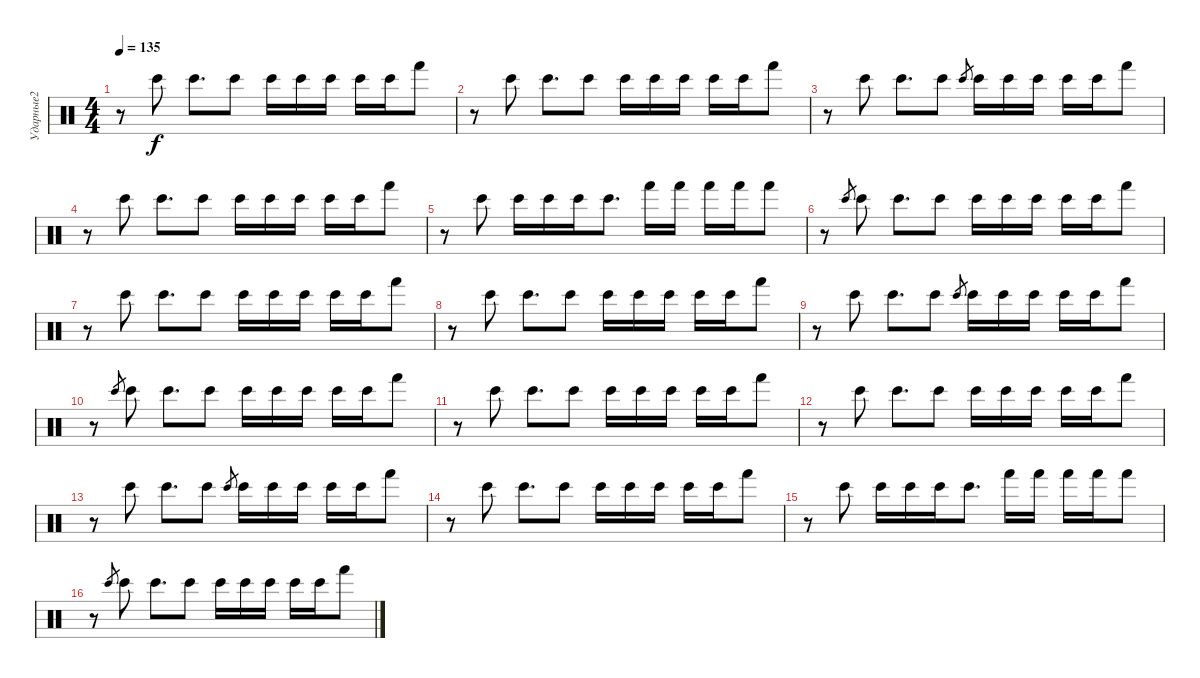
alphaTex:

\track ("Ударные2" "Ударные2") {instrument percussion}
\staff {score}
\articulation defaults
\ts (4 4)
\tempo 135
\clef neutral
\ks c
r.8{dy f} "Bongo High (hit)".8 "Bongo High (hit)".8{d} "Bongo High (hit)".8 "Bongo High (hit)".16 "Bongo High (hit)".16 "Bongo High (hit)".16 "Bongo High (hit)".16 "Bongo High (hit)".16 "Hand (hit)".8 |
r.8 "Bongo High (hit)".8 "Bongo High (hit)".8{d} "Bongo High (hit)".8 "Bongo High (hit)".16 "Bongo High (hit)".16 "Bongo High (hit)".16 "Bongo High (hit)".16 "Bongo High (hit)".16 "Hand (hit)".8 |
r.8 "Bongo High (hit)".8 "Bongo High (hit)".8{d} "Bongo High (hit)".8 "Bongo High (hit)".8{gr} "Bongo High (hit)".16 "Bongo High (hit)".16 "Bongo High (hit)".16 "Bongo High (hit)".16 "Bongo High (hit)".16 "Hand (hit)".8 |
r.8 "Bongo High (hit)".8 "Bongo High (hit)".8{d} "Bongo High (hit)".8 "Bongo High (hit)".16 "Bongo High (hit)".16 "Bongo High (hit)".16 "Bongo High (hit)".16 "Bongo High (hit)".16 "Hand (hit)".8 |
r.8 "Bongo High (hit)".8 "Bongo High (hit)".16 "Bongo High (hit)".16 "Bongo High (hit)".16 "Bongo High (hit)".8{d} "Hand (hit)".16 "Hand (hit)".16 "Hand (hit)".16 "Hand (hit)".16 "Hand (hit)".8 |
r.8 "Bongo High (hit)".8{gr} "Bongo High (hit)".8 "Bongo High (hit)".8{d} "Bongo High (hit)".8 "Bongo High (hit)".16 "Bongo High (hit)".16 "Bongo High (hit)".16 "Bongo High (hit)".16 "Bongo High (hit)".16 "Hand (hit)".8 |
r.8 "Bongo High (hit)".8 "Bongo High (hit)".8{d} "Bongo High (hit)".8 "Bongo High (hit)".16 "Bongo High (hit)".16 "Bongo High (hit)".16 "Bongo High (hit)".16 "Bongo High (hit)".16 "Hand (hit)".8 |
r.8 "Bongo High (hit)".8 "Bongo High (hit)".8{d} "Bongo High (hit)".8 "Bongo High (hit)".16 "Bongo High (hit)".16 "Bongo High (hit)".16 "Bongo High (hit)".16 "Bongo High (hit)".16 "Hand (hit)".8 |
r.8 "Bongo High (hit)".8 "Bongo High (hit)".8{d} "Bongo High (hit)".8 "Bongo High (hit)".8{gr} "Bongo High (hit)".16 "Bongo High (hit)".16 "Bongo High (hit)".16 "Bongo High (hit)".16 "Bongo High (hit)".16 "Hand (hit)".8 |
r.8 "Bongo High (hit)".8{gr} "Bongo High (hit)".8 "Bongo High (hit)".8{d} "Bongo High (hit)".8 "Bongo High (hit)".16 "Bongo High (hit)".16 "Bongo High (hit)".16 "Bongo High (hit)".16 "Bongo High (hit)".16 "Hand (hit)".8 |
r.8 "Bongo High (hit)".8 "Bongo High (hit)".8{d} "Bongo High (hit)".8 "Bongo High (hit)".16 "Bongo High (hit)".16 "Bongo High (hit)".16 "Bongo High (hit)".16 "Bongo High (hit)".16 "Hand (hit)".8 |
r.8 "Bongo High (hit)".8 "Bongo High (hit)".8{d} "Bongo High (hit)".8 "Bongo High (hit)".16 "Bongo High (hit)".16 "Bongo High (hit)".16 "Bongo High (hit)".16 "Bongo High (hit)".16 "Hand (hit)".8 |
r.8 "Bongo High (hit)".8 "Bongo High (hit)".8{d} "Bongo High (hit)".8 "Bongo High (hit)".8{gr} "Bongo High (hit)".16 "Bongo High (hit)".16 "Bongo High (hit)".16 "Bongo High (hit)".16 "Bongo High (hit)".16 "Hand (hit)".8 |
r.8 "Bongo High (hit)".8 "Bongo High (hit)".8{d} "Bongo High (hit)".8 "Bongo High (hit)".16 "Bongo High (hit)".16 "Bongo High (hit)".16 "Bongo High (hit)".16 "Bongo High (hit)".16 "Hand (hit)".8 |
r.8 "Bongo High (hit)".8 "Bongo High (hit)".16 "Bongo High (hit)".16 "Bongo High (hit)".16 "Bongo High (hit)".8{d} "Hand (hit)".16 "Hand (hit)".16 "Hand (hit)".16 "Hand (hit)".16 "Hand (hit)".8 |
r.8 "Bongo High (hit)".8{gr} "Bongo High (hit)".8 "Bongo High (hit)".8{d} "Bongo High (hit)".8 "Bongo High (hit)".16 "Bongo High (hit)".16 "Bongo High (hit)".16 "Bongo High (hit)".16 "Bongo High (hit)".16 "Hand (hit)".8
